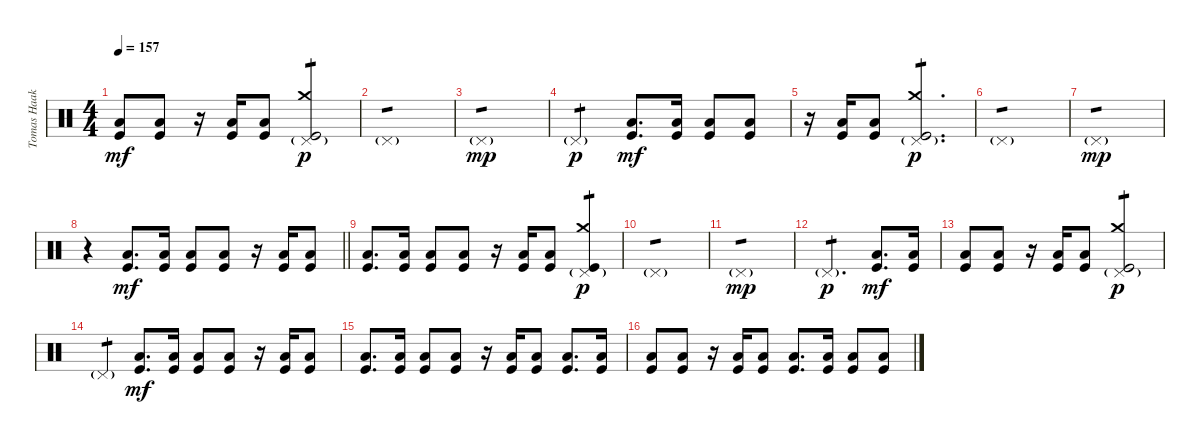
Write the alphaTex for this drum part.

\track ("Tomas Haake (Drums)" "Tomas Haak") {instrument percussion}
\staff {score}
\articulation defaults
\ts (4 4)
\tempo 157
\clef neutral
\ks c
("Low Floor Tom (hit)" "Kick (hit)").8{dy mf} ("Low Floor Tom (hit)" "Kick (hit)").8 r.16 ("Low Floor Tom (hit)" "Kick (hit)").16 ("Low Floor Tom (hit)" "Kick (hit)").8 ("Crash medium (hit)" "Pedal Hi-Hat (hit)"{g} "Kick (hit)").2{tp 1 dy p} |
"Pedal Hi-Hat (hit)"{g}.1{tp 1} |
"Pedal Hi-Hat (hit)"{g}.1{tp 1 dy mp} |
"Pedal Hi-Hat (hit)"{g}.2{tp 1 dy p} ("Low Floor Tom (hit)" "Kick (hit)").8{d dy mf} ("Low Floor Tom (hit)" "Kick (hit)").16 ("Low Floor Tom (hit)" "Kick (hit)").8 ("Low Floor Tom (hit)" "Kick (hit)").8 |
r.16 ("Low Floor Tom (hit)" "Kick (hit)").16 ("Low Floor Tom (hit)" "Kick (hit)").8 ("Crash medium (hit)" "Pedal Hi-Hat (hit)"{g} "Kick (hit)").2{d tp 1 dy p} |
"Pedal Hi-Hat (hit)"{g}.1{tp 1} |
"Pedal Hi-Hat (hit)"{g}.1{tp 1 dy mp} |
\barLineRight lightlight
r.4 ("Low Floor Tom (hit)" "Kick (hit)").8{d dy mf} ("Low Floor Tom (hit)" "Kick (hit)").16 ("Low Floor Tom (hit)" "Kick (hit)").8 ("Low Floor Tom (hit)" "Kick (hit)").8 r.16 ("Low Floor Tom (hit)" "Kick (hit)").16 ("Low Floor Tom (hit)" "Kick (hit)").8 |
("Low Floor Tom (hit)" "Kick (hit)").8{d} ("Low Floor Tom (hit)" "Kick (hit)").16 ("Low Floor Tom (hit)" "Kick (hit)").8 ("Low Floor Tom (hit)" "Kick (hit)").8 r.16 ("Low Floor Tom (hit)" "Kick (hit)").16 ("Low Floor Tom (hit)" "Kick (hit)").8 ("Crash medium (hit)" "Pedal Hi-Hat (hit)"{g} "Kick (hit)").4{tp 1 dy p} |
"Pedal Hi-Hat (hit)"{g}.1{tp 1} |
"Pedal Hi-Hat (hit)"{g}.1{tp 1 dy mp} |
"Pedal Hi-Hat (hit)"{g}.2{d tp 1 dy p} ("Low Floor Tom (hit)" "Kick (hit)").8{d dy mf} ("Low Floor Tom (hit)" "Kick (hit)").16 |
("Low Floor Tom (hit)" "Kick (hit)").8 ("Low Floor Tom (hit)" "Kick (hit)").8 r.16 ("Low Floor Tom (hit)" "Kick (hit)").16 ("Low Floor Tom (hit)" "Kick (hit)").8 ("Crash medium (hit)" "Pedal Hi-Hat (hit)"{g} "Kick (hit)").2{tp 1 dy p} |
"Pedal Hi-Hat (hit)"{g}.4{tp 1} ("Low Floor Tom (hit)" "Kick (hit)").8{d dy mf} ("Low Floor Tom (hit)" "Kick (hit)").16 ("Low Floor Tom (hit)" "Kick (hit)").8 ("Low Floor Tom (hit)" "Kick (hit)").8 r.16 ("Low Floor Tom (hit)" "Kick (hit)").16 ("Low Floor Tom (hit)" "Kick (hit)").8 |
("Low Floor Tom (hit)" "Kick (hit)").8{d} ("Low Floor Tom (hit)" "Kick (hit)").16 ("Low Floor Tom (hit)" "Kick (hit)").8 ("Low Floor Tom (hit)" "Kick (hit)").8 r.16 ("Low Floor Tom (hit)" "Kick (hit)").16 ("Low Floor Tom (hit)" "Kick (hit)").8 ("Low Floor Tom (hit)" "Kick (hit)").8{d} ("Low Floor Tom (hit)" "Kick (hit)").16 |
("Low Floor Tom (hit)" "Kick (hit)").8 ("Low Floor Tom (hit)" "Kick (hit)").8 r.16 ("Low Floor Tom (hit)" "Kick (hit)").16 ("Low Floor Tom (hit)" "Kick (hit)").8 ("Low Floor Tom (hit)" "Kick (hit)").8{d} ("Low Floor Tom (hit)" "Kick (hit)").16 ("Low Floor Tom (hit)" "Kick (hit)").8 ("Low Floor Tom (hit)" "Kick (hit)").8
